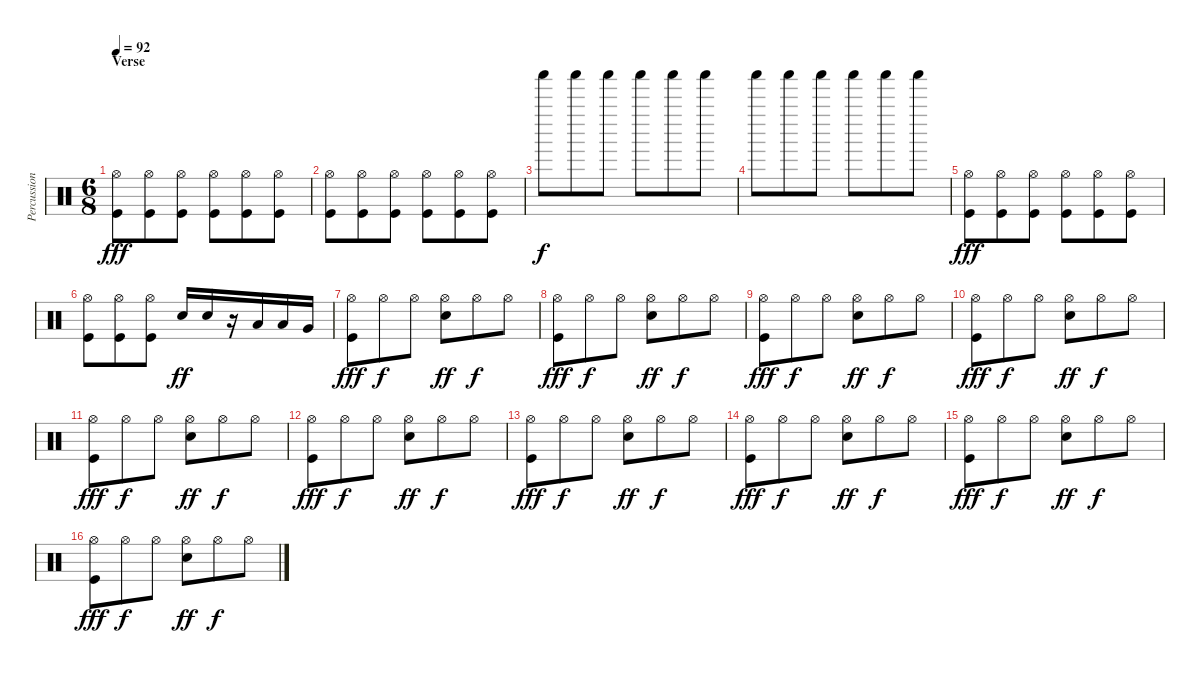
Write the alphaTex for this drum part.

\track ("Percussion" "Percussion") {instrument percussion}
\staff {score}
\articulation defaults
\ts (6 8)
\section ("" "Verse")
\tempo 92
\clef neutral
\ks c
("Hi-Hat (open)" "Kick (hit)").8{dy fff} ("Hi-Hat (open)" "Kick (hit)").8 ("Hi-Hat (open)" "Kick (hit)").8 ("Hi-Hat (open)" "Kick (hit)").8 ("Hi-Hat (open)" "Kick (hit)").8 ("Hi-Hat (open)" "Kick (hit)").8 |
("Hi-Hat (open)" "Kick (hit)").8 ("Hi-Hat (open)" "Kick (hit)").8 ("Hi-Hat (open)" "Kick (hit)").8 ("Hi-Hat (open)" "Kick (hit)").8 ("Hi-Hat (open)" "Kick (hit)").8 ("Hi-Hat (open)" "Kick (hit)").8 |
"Shaker (hit)".8{dy f} "Shaker (hit)".8 "Shaker (hit)".8 "Shaker (hit)".8 "Shaker (hit)".8 "Shaker (hit)".8 |
"Shaker (hit)".8 "Shaker (hit)".8 "Shaker (hit)".8 "Shaker (hit)".8 "Shaker (hit)".8 "Shaker (hit)".8 |
("Hi-Hat (open)" "Kick (hit)").8{dy fff} ("Hi-Hat (open)" "Kick (hit)").8 ("Hi-Hat (open)" "Kick (hit)").8 ("Hi-Hat (open)" "Kick (hit)").8 ("Hi-Hat (open)" "Kick (hit)").8 ("Hi-Hat (open)" "Kick (hit)").8 |
("Hi-Hat (open)" "Kick (hit)").8 ("Hi-Hat (open)" "Kick (hit)").8 ("Hi-Hat (open)" "Kick (hit)").8 "Snare (hit) 2".16{dy ff} "Snare (hit) 2".16 r.16 "Low Tom (hit)".16 "Low Tom (hit)".16 "Very Low Tom (hit)".16 |
("Hi-Hat (open)" "Kick (hit)").8{dy fff} "Hi-Hat (open)".8{dy f} "Hi-Hat (open)".8 ("Hi-Hat (open)" "Snare (hit) 2").8{dy ff} "Hi-Hat (open)".8{dy f} "Hi-Hat (open)".8 |
("Hi-Hat (open)" "Kick (hit)").8{dy fff} "Hi-Hat (open)".8{dy f} "Hi-Hat (open)".8 ("Hi-Hat (open)" "Snare (hit) 2").8{dy ff} "Hi-Hat (open)".8{dy f} "Hi-Hat (open)".8 |
("Hi-Hat (open)" "Kick (hit)").8{dy fff} "Hi-Hat (open)".8{dy f} "Hi-Hat (open)".8 ("Hi-Hat (open)" "Snare (hit) 2").8{dy ff} "Hi-Hat (open)".8{dy f} "Hi-Hat (open)".8 |
("Hi-Hat (open)" "Kick (hit)").8{dy fff} "Hi-Hat (open)".8{dy f} "Hi-Hat (open)".8 ("Hi-Hat (open)" "Snare (hit) 2").8{dy ff} "Hi-Hat (open)".8{dy f} "Hi-Hat (open)".8 |
("Hi-Hat (open)" "Kick (hit)").8{dy fff} "Hi-Hat (open)".8{dy f} "Hi-Hat (open)".8 ("Hi-Hat (open)" "Snare (hit) 2").8{dy ff} "Hi-Hat (open)".8{dy f} "Hi-Hat (open)".8 |
("Hi-Hat (open)" "Kick (hit)").8{dy fff} "Hi-Hat (open)".8{dy f} "Hi-Hat (open)".8 ("Hi-Hat (open)" "Snare (hit) 2").8{dy ff} "Hi-Hat (open)".8{dy f} "Hi-Hat (open)".8 |
("Hi-Hat (open)" "Kick (hit)").8{dy fff} "Hi-Hat (open)".8{dy f} "Hi-Hat (open)".8 ("Hi-Hat (open)" "Snare (hit) 2").8{dy ff} "Hi-Hat (open)".8{dy f} "Hi-Hat (open)".8 |
("Hi-Hat (open)" "Kick (hit)").8{dy fff} "Hi-Hat (open)".8{dy f} "Hi-Hat (open)".8 ("Hi-Hat (open)" "Snare (hit) 2").8{dy ff} "Hi-Hat (open)".8{dy f} "Hi-Hat (open)".8 |
("Hi-Hat (open)" "Kick (hit)").8{dy fff} "Hi-Hat (open)".8{dy f} "Hi-Hat (open)".8 ("Hi-Hat (open)" "Snare (hit) 2").8{dy ff} "Hi-Hat (open)".8{dy f} "Hi-Hat (open)".8 |
("Hi-Hat (open)" "Kick (hit)").8{dy fff} "Hi-Hat (open)".8{dy f} "Hi-Hat (open)".8 ("Hi-Hat (open)" "Snare (hit) 2").8{dy ff} "Hi-Hat (open)".8{dy f} "Hi-Hat (open)".8
